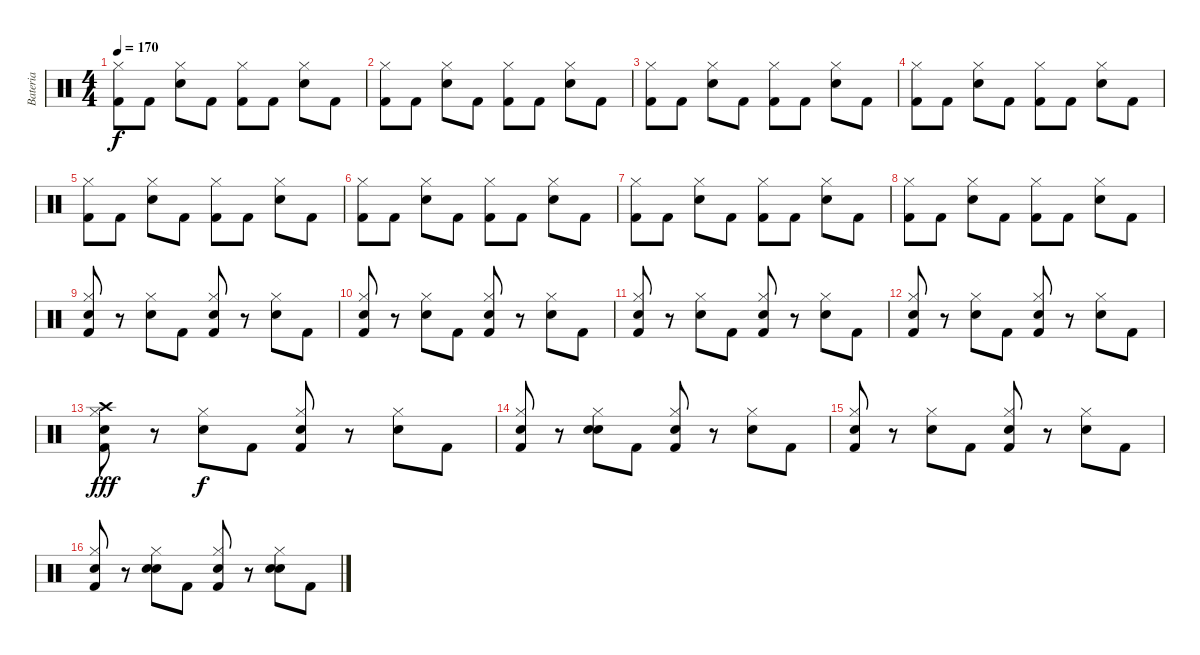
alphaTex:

\track ("Bateria" "Bateria") {instrument percussion}
\staff {score}
\articulation defaults
\ts (4 4)
\tempo 170
\clef neutral
\ks c
("Kick (hit) 2" "Hi-Hat (closed)").8{dy f} "Kick (hit) 2".8 ("Snare (hit) 2" "Hi-Hat (closed)").8 "Kick (hit) 2".8 ("Kick (hit) 2" "Hi-Hat (closed)").8 "Kick (hit) 2".8 ("Snare (hit) 2" "Hi-Hat (closed)").8 "Kick (hit) 2".8 |
("Kick (hit) 2" "Hi-Hat (closed)").8 "Kick (hit) 2".8 ("Snare (hit) 2" "Hi-Hat (closed)").8 "Kick (hit) 2".8 ("Kick (hit) 2" "Hi-Hat (closed)").8 "Kick (hit) 2".8 ("Snare (hit) 2" "Hi-Hat (closed)").8 "Kick (hit) 2".8 |
("Kick (hit) 2" "Hi-Hat (closed)").8 "Kick (hit) 2".8 ("Snare (hit) 2" "Hi-Hat (closed)").8 "Kick (hit) 2".8 ("Kick (hit) 2" "Hi-Hat (closed)").8 "Kick (hit) 2".8 ("Snare (hit) 2" "Hi-Hat (closed)").8 "Kick (hit) 2".8 |
("Kick (hit) 2" "Hi-Hat (closed)").8 "Kick (hit) 2".8 ("Snare (hit) 2" "Hi-Hat (closed)").8 "Kick (hit) 2".8 ("Kick (hit) 2" "Hi-Hat (closed)").8 "Kick (hit) 2".8 ("Snare (hit) 2" "Hi-Hat (closed)").8 "Kick (hit) 2".8 |
("Kick (hit) 2" "Hi-Hat (closed)").8 "Kick (hit) 2".8 ("Snare (hit) 2" "Hi-Hat (closed)").8 "Kick (hit) 2".8 ("Kick (hit) 2" "Hi-Hat (closed)").8 "Kick (hit) 2".8 ("Snare (hit) 2" "Hi-Hat (closed)").8 "Kick (hit) 2".8 |
("Kick (hit) 2" "Hi-Hat (closed)").8 "Kick (hit) 2".8 ("Snare (hit) 2" "Hi-Hat (closed)").8 "Kick (hit) 2".8 ("Kick (hit) 2" "Hi-Hat (closed)").8 "Kick (hit) 2".8 ("Snare (hit) 2" "Hi-Hat (closed)").8 "Kick (hit) 2".8 |
("Kick (hit) 2" "Hi-Hat (closed)").8 "Kick (hit) 2".8 ("Snare (hit) 2" "Hi-Hat (closed)").8 "Kick (hit) 2".8 ("Kick (hit) 2" "Hi-Hat (closed)").8 "Kick (hit) 2".8 ("Snare (hit) 2" "Hi-Hat (closed)").8 "Kick (hit) 2".8 |
("Kick (hit) 2" "Hi-Hat (closed)").8 "Kick (hit) 2".8 ("Snare (hit) 2" "Hi-Hat (closed)").8 "Kick (hit) 2".8 ("Kick (hit) 2" "Hi-Hat (closed)").8 "Kick (hit) 2".8 ("Snare (hit) 2" "Hi-Hat (closed)").8 "Kick (hit) 2".8 |
("Snare (hit) 2" "Kick (hit) 2" "Hi-Hat (closed)").8 r.8 ("Snare (hit) 2" "Hi-Hat (closed)").8 "Kick (hit) 2".8 ("Snare (hit) 2" "Kick (hit) 2" "Hi-Hat (closed)").8 r.8 ("Snare (hit) 2" "Hi-Hat (closed)").8 "Kick (hit) 2".8 |
("Snare (hit) 2" "Kick (hit) 2" "Hi-Hat (closed)").8 r.8 ("Snare (hit) 2" "Hi-Hat (closed)").8 "Kick (hit) 2".8 ("Snare (hit) 2" "Kick (hit) 2" "Hi-Hat (closed)").8 r.8 ("Snare (hit) 2" "Hi-Hat (closed)").8 "Kick (hit) 2".8 |
("Snare (hit) 2" "Kick (hit) 2" "Hi-Hat (closed)").8 r.8 ("Snare (hit) 2" "Hi-Hat (closed)").8 "Kick (hit) 2".8 ("Snare (hit) 2" "Kick (hit) 2" "Hi-Hat (closed)").8 r.8 ("Snare (hit) 2" "Hi-Hat (closed)").8 "Kick (hit) 2".8 |
("Snare (hit) 2" "Kick (hit) 2" "Hi-Hat (closed)").8 r.8 ("Snare (hit) 2" "Hi-Hat (closed)").8 "Kick (hit) 2".8 ("Snare (hit) 2" "Kick (hit) 2" "Hi-Hat (closed)").8 r.8 ("Snare (hit) 2" "Hi-Hat (closed)").8 "Kick (hit) 2".8 |
("Snare (hit) 2" "Kick (hit) 2" "Hi-Hat (closed)" "Crash high (hit)").8{dy fff} r.8 ("Snare (hit) 2" "Hi-Hat (closed)").8{dy f} "Kick (hit) 2".8 ("Snare (hit) 2" "Kick (hit) 2" "Hi-Hat (closed)").8 r.8 ("Snare (hit) 2" "Hi-Hat (closed)").8 "Kick (hit) 2".8 |
("Snare (hit) 2" "Kick (hit) 2" "Hi-Hat (closed)").8 r.8 ("Snare (hit) 2" "Snare (hit) 2" "Hi-Hat (closed)").8 "Kick (hit) 2".8 ("Snare (hit) 2" "Kick (hit) 2" "Hi-Hat (closed)").8 r.8 ("Snare (hit) 2" "Hi-Hat (closed)").8 "Kick (hit) 2".8 |
("Snare (hit) 2" "Kick (hit) 2" "Hi-Hat (closed)").8 r.8 ("Snare (hit) 2" "Hi-Hat (closed)").8 "Kick (hit) 2".8 ("Snare (hit) 2" "Kick (hit) 2" "Hi-Hat (closed)").8 r.8 ("Snare (hit) 2" "Hi-Hat (closed)").8 "Kick (hit) 2".8 |
("Snare (hit) 2" "Kick (hit) 2" "Hi-Hat (closed)").8 r.8 ("Snare (hit) 2" "Snare (hit) 2" "Hi-Hat (closed)").8 "Kick (hit) 2".8 ("Snare (hit) 2" "Kick (hit) 2" "Hi-Hat (closed)").8 r.8 ("Snare (hit) 2" "Snare (hit) 2" "Hi-Hat (closed)").8 "Kick (hit) 2".8
